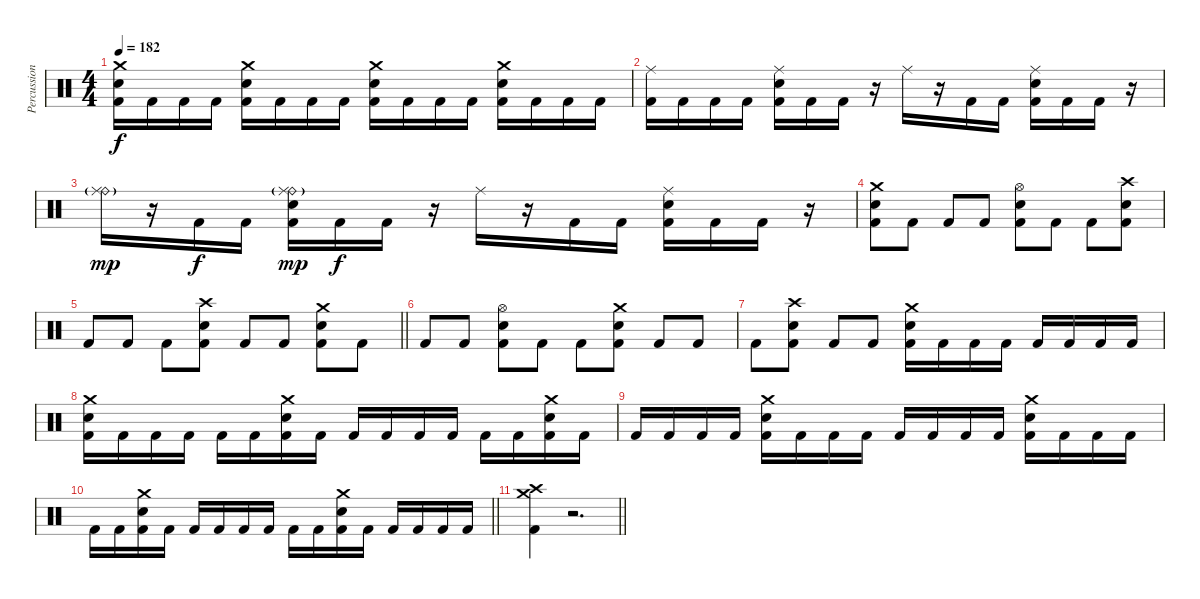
\track ("Percussion" "Percussion") {instrument percussion}
\staff {score}
\articulation defaults
\ts (4 4)
\tempo 182
\clef neutral
\ks c
("Crash medium (hit)" "Electric Snare (hit)" "Kick (hit) 2").16{dy f} "Kick (hit) 2".16 "Kick (hit) 2".16 "Kick (hit) 2".16 ("Crash medium (hit)" "Electric Snare (hit)" "Kick (hit) 2").16 "Kick (hit) 2".16 "Kick (hit) 2".16 "Kick (hit) 2".16 ("Crash medium (hit)" "Electric Snare (hit)" "Kick (hit) 2").16 "Kick (hit) 2".16 "Kick (hit) 2".16 "Kick (hit) 2".16 ("Crash medium (hit)" "Electric Snare (hit)" "Kick (hit) 2").16 "Kick (hit) 2".16 "Kick (hit) 2".16 "Kick (hit) 2".16 |
("Ride (middle)" "Kick (hit) 2").16 "Kick (hit) 2".16 "Kick (hit) 2".16 "Kick (hit) 2".16 ("Ride (middle)" "Electric Snare (hit)" "Kick (hit) 2").16 "Kick (hit) 2".16 "Kick (hit) 2".16 r.16 "Ride (middle)".16 r.16 "Kick (hit) 2".16 "Kick (hit) 2".16 ("Ride (middle)" "Electric Snare (hit)" "Kick (hit) 2").16 "Kick (hit) 2".16 "Kick (hit) 2".16 r.16 |
("Ride (bell)"{g} "Ride (middle)").16{dy mp} r.16 "Kick (hit) 2".16{dy f} "Kick (hit) 2".16 ("Ride (bell)"{g} "Ride (middle)" "Electric Snare (hit)" "Kick (hit) 2").16{dy mp} "Kick (hit) 2".16{dy f} "Kick (hit) 2".16 r.16 "Ride (middle)".16 r.16 "Kick (hit) 2".16 "Kick (hit) 2".16 ("Ride (middle)" "Electric Snare (hit)" "Kick (hit) 2").16 "Kick (hit) 2".16 "Kick (hit) 2".16 r.16 |
("Crash medium (hit)" "Electric Snare (hit)" "Kick (hit) 2").8 "Kick (hit) 2".8 "Kick (hit) 2".8 "Kick (hit) 2".8 ("Hi-Hat (open)" "Electric Snare (hit)" "Kick (hit) 2").8 "Kick (hit) 2".8 "Kick (hit) 2".8 ("Crash high (hit)" "Electric Snare (hit)" "Kick (hit) 2").8 |
\barLineRight lightlight "Kick (hit) 2".8 "Kick (hit) 2".8 "Kick (hit) 2".8
("Crash high (hit)" "Electric Snare (hit)" "Kick (hit) 2").8 "Kick (hit) 2".8 "Kick (hit) 2".8 ("Crash medium (hit)" "Electric Snare (hit)" "Kick (hit) 2").8 "Kick (hit) 2".8 |
"Kick (hit) 2".8 "Kick (hit) 2".8 ("Hi-Hat (open)" "Electric Snare (hit)" "Kick (hit) 2").8 "Kick (hit) 2".8 "Kick (hit) 2".8 ("Crash medium (hit)" "Electric Snare (hit)" "Kick (hit) 2").8 "Kick (hit) 2".8 "Kick (hit) 2".8 |
"Kick (hit) 2".8 ("Crash high (hit)" "Electric Snare (hit)" "Kick (hit) 2").8 "Kick (hit) 2".8 "Kick (hit) 2".8 ("Crash medium (hit)" "Electric Snare (hit)" "Kick (hit) 2").16 "Kick (hit) 2".16 "Kick (hit) 2".16 "Kick (hit) 2".16 "Kick (hit) 2".16 "Kick (hit) 2".16 "Kick (hit) 2".16 "Kick (hit) 2".16 |
("Crash medium (hit)" "Electric Snare (hit)" "Kick (hit) 2").16 "Kick (hit) 2".16 "Kick (hit) 2".16 "Kick (hit) 2".16 "Kick (hit) 2".16 "Kick (hit) 2".16 ("Crash medium (hit)" "Electric Snare (hit)" "Kick (hit) 2").16 "Kick (hit) 2".16 "Kick (hit) 2".16 "Kick (hit) 2".16 "Kick (hit) 2".16 "Kick (hit) 2".16 "Kick (hit) 2".16 "Kick (hit) 2".16 ("Crash medium (hit)" "Electric Snare (hit)" "Kick (hit) 2").16 "Kick (hit) 2".16 |
"Kick (hit) 2".16 "Kick (hit) 2".16 "Kick (hit) 2".16 "Kick (hit) 2".16 ("Crash medium (hit)" "Electric Snare (hit)" "Kick (hit) 2").16 "Kick (hit) 2".16 "Kick (hit) 2".16 "Kick (hit) 2".16 "Kick (hit) 2".16 "Kick (hit) 2".16 "Kick (hit) 2".16 "Kick (hit) 2".16 ("Crash medium (hit)" "Electric Snare (hit)" "Kick (hit) 2").16 "Kick (hit) 2".16 "Kick (hit) 2".16 "Kick (hit) 2".16 |
\barLineRight lightlight "Kick (hit) 2".16 "Kick (hit) 2".16
("Crash medium (hit)" "Electric Snare (hit)" "Kick (hit) 2").16 "Kick (hit) 2".16 "Kick (hit) 2".16 "Kick (hit) 2".16 "Kick (hit) 2".16 "Kick (hit) 2".16 "Kick (hit) 2".16 "Kick (hit) 2".16 ("Crash medium (hit)" "Electric Snare (hit)" "Kick (hit) 2").16 "Kick (hit) 2".16 "Kick (hit) 2".16 "Kick (hit) 2".16 "Kick (hit) 2".16 "Kick (hit) 2".16 |
\barLineRight lightlight
("Crash medium (hit)" "Crash high (hit)" "Kick (hit) 2").4 r.2{d}
